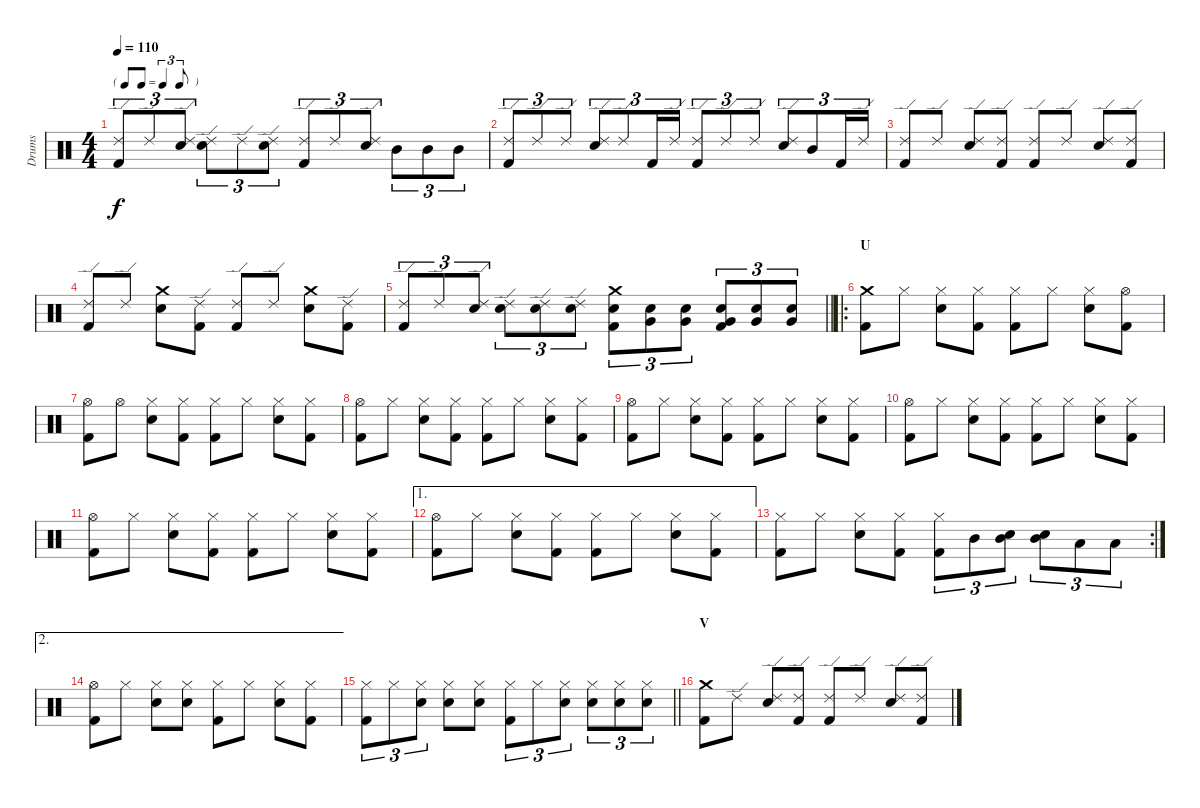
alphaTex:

\track ("Drums" "Drums") {instrument percussion}
\staff {score}
\articulation defaults
\ts (4 4)
\tf triplet8th
\tempo 110
\clef neutral
\ks c
("Ride (edge) 2" "Kick (hit) 2").8{tu (3 2) dy f} "Ride (edge) 2".8{tu (3 2)} ("Ride (edge) 2" "Snare (hit) 2").8{tu (3 2)} ("Ride (edge) 2" "Snare (hit) 2").8{tu (3 2)} "Ride (edge) 2".8{tu (3 2)} ("Ride (edge) 2" "Snare (hit) 2").8{tu (3 2)} ("Ride (edge) 2" "Kick (hit) 2").8{tu (3 2)} "Ride (edge) 2".8{tu (3 2)} ("Ride (edge) 2" "Snare (hit) 2").8{tu (3 2)} "Mid Tom (hit)".8{tu (3 2)} "Mid Tom (hit)".8{tu (3 2)} "Mid Tom (hit)".8{tu (3 2)} |
("Ride (edge) 2" "Kick (hit) 2").8{tu (3 2)} "Ride (edge) 2".8{tu (3 2)} "Ride (edge) 2".8{tu (3 2)} ("Ride (edge) 2" "Snare (hit) 2").8{tu (3 2)} "Ride (edge) 2".8{tu (3 2)} "Kick (hit) 2".16{tu (3 2)} "Ride (edge) 2".16{tu (3 2)} ("Ride (edge) 2" "Kick (hit) 2").8{tu (3 2)} "Ride (edge) 2".8{tu (3 2)} "Ride (edge) 2".8{tu (3 2)} ("Ride (edge) 2" "Snare (hit) 2").8{tu (3 2)} "Mid Tom (hit)".8{tu (3 2)} "Kick (hit) 2".16{tu (3 2)} "Ride (edge) 2".16{tu (3 2)} |
("Ride (edge) 2" "Kick (hit) 2").8 "Ride (edge) 2".8 ("Ride (edge) 2" "Snare (hit) 2").8 ("Ride (edge) 2" "Kick (hit) 2").8 ("Ride (edge) 2" "Kick (hit) 2").8 "Ride (edge) 2".8 ("Ride (edge) 2" "Snare (hit) 2").8 ("Ride (edge) 2" "Kick (hit) 2").8 |
("Ride (edge) 2" "Kick (hit) 2").8 "Ride (edge) 2".8 ("Crash medium (hit)" "Snare (hit) 2").8 ("Ride (edge) 2" "Kick (hit) 2").8 ("Ride (edge) 2" "Kick (hit) 2").8 "Ride (edge) 2".8 ("Crash medium (hit)" "Snare (hit) 2").8 ("Ride (edge) 2" "Kick (hit) 2").8 |
\barLineRight lightlight
("Ride (edge) 2" "Kick (hit) 2").8{tu (3 2)} "Ride (edge) 2".8{tu (3 2)} ("Ride (edge) 2" "Snare (hit) 2").8{tu (3 2)} ("Ride (edge) 2" "Snare (hit) 2").8{tu (3 2)} ("Ride (edge) 2" "Snare (hit) 2").8{tu (3 2)} ("Ride (edge) 2" "Snare (hit) 2").8{tu (3 2)} ("Crash medium (hit)" "Snare (hit) 2" "Kick (hit) 2").8{tu (3 2)} ("Very Low Tom (hit)" "Snare (hit) 2").8{tu (3 2)} ("Very Low Tom (hit)" "Snare (hit) 2").8{tu (3 2)} ("Kick (hit) 2" "Very Low Tom (hit)" "Snare (hit) 2").8{tu (3 2)} ("Very Low Tom (hit)" "Snare (hit) 2").8{tu (3 2)} ("Very Low Tom (hit)" "Snare (hit) 2").8{tu (3 2)} |
\ro
\section ("" "U")
("Crash medium (hit)" "Kick (hit) 2").8 "Hi-Hat (closed)".8 ("Hi-Hat (closed)" "Snare (hit) 2").8 ("Hi-Hat (closed)" "Kick (hit) 2").8 ("Hi-Hat (closed)" "Kick (hit) 2").8 "Hi-Hat (closed)".8 ("Hi-Hat (closed)" "Snare (hit) 2").8 ("Hi-Hat (open)" "Kick (hit) 2").8 |
("Hi-Hat (open)" "Kick (hit) 2").8 "Hi-Hat (open)".8 ("Hi-Hat (closed)" "Snare (hit) 2").8 ("Hi-Hat (closed)" "Kick (hit) 2").8 ("Hi-Hat (closed)" "Kick (hit) 2").8 "Hi-Hat (closed)".8 ("Hi-Hat (closed)" "Snare (hit) 2").8 ("Hi-Hat (closed)" "Kick (hit) 2").8 |
("Hi-Hat (open)" "Kick (hit) 2").8 "Hi-Hat (closed)".8 ("Hi-Hat (closed)" "Snare (hit) 2").8 ("Hi-Hat (closed)" "Kick (hit) 2").8 ("Hi-Hat (closed)" "Kick (hit) 2").8 "Hi-Hat (closed)".8 ("Hi-Hat (closed)" "Snare (hit) 2").8 ("Hi-Hat (closed)" "Kick (hit) 2").8 |
("Hi-Hat (open)" "Kick (hit) 2").8 "Hi-Hat (closed)".8 ("Hi-Hat (closed)" "Snare (hit) 2").8 ("Hi-Hat (closed)" "Kick (hit) 2").8 ("Hi-Hat (closed)" "Kick (hit) 2").8 "Hi-Hat (closed)".8 ("Hi-Hat (closed)" "Snare (hit) 2").8 ("Hi-Hat (closed)" "Kick (hit) 2").8 |
("Hi-Hat (open)" "Kick (hit) 2").8 "Hi-Hat (closed)".8 ("Hi-Hat (closed)" "Snare (hit) 2").8 ("Hi-Hat (closed)" "Kick (hit) 2").8 ("Hi-Hat (closed)" "Kick (hit) 2").8 "Hi-Hat (closed)".8 ("Hi-Hat (closed)" "Snare (hit) 2").8 ("Hi-Hat (closed)" "Kick (hit) 2").8 |
("Hi-Hat (open)" "Kick (hit) 2").8 "Hi-Hat (closed)".8 ("Hi-Hat (closed)" "Snare (hit) 2").8 ("Hi-Hat (closed)" "Kick (hit) 2").8 ("Hi-Hat (closed)" "Kick (hit) 2").8 "Hi-Hat (closed)".8 ("Hi-Hat (closed)" "Snare (hit) 2").8 ("Hi-Hat (closed)" "Kick (hit) 2").8 |
\ae 1
("Hi-Hat (open)" "Kick (hit) 2").8 "Hi-Hat (closed)".8 ("Hi-Hat (closed)" "Snare (hit) 2").8 ("Hi-Hat (closed)" "Kick (hit) 2").8 ("Hi-Hat (closed)" "Kick (hit) 2").8 "Hi-Hat (closed)".8 ("Hi-Hat (closed)" "Snare (hit) 2").8 ("Hi-Hat (closed)" "Kick (hit) 2").8 |
\rc 2
("Hi-Hat (closed)" "Kick (hit) 2").8 "Hi-Hat (closed)".8 ("Hi-Hat (closed)" "Snare (hit) 2").8 ("Hi-Hat (closed)" "Kick (hit) 2").8 ("Hi-Hat (closed)" "Kick (hit) 2").8{tu (3 2)} "Mid Tom (hit)".8{tu (3 2)} ("Snare (hit) 2" "Mid Tom (hit)").8{tu (3 2)} ("Snare (hit) 2" "Mid Tom (hit)").8{tu (3 2)} "Low Tom (hit)".8{tu (3 2)} "Low Tom (hit)".8{tu (3 2)} |
\ae 2
("Hi-Hat (open)" "Kick (hit) 2").8 "Hi-Hat (closed)".8 ("Hi-Hat (closed)" "Snare (hit) 2").8 ("Hi-Hat (closed)" "Snare (hit) 2").8 ("Hi-Hat (closed)" "Kick (hit) 2").8 "Hi-Hat (closed)".8 ("Hi-Hat (closed)" "Snare (hit) 2").8 ("Hi-Hat (closed)" "Kick (hit) 2").8 |
\barLineRight lightlight
("Hi-Hat (closed)" "Kick (hit) 2").8{tu (3 2)} "Hi-Hat (closed)".8{tu (3 2)} ("Hi-Hat (closed)" "Snare (hit) 2").8{tu (3 2)} ("Hi-Hat (closed)" "Snare (hit) 2").8 ("Hi-Hat (closed)" "Snare (hit) 2").8 ("Hi-Hat (closed)" "Kick (hit) 2").8{tu (3 2)} "Hi-Hat (closed)".8{tu (3 2)} ("Hi-Hat (closed)" "Snare (hit) 2").8{tu (3 2)} ("Hi-Hat (closed)" "Snare (hit) 2").8{tu (3 2)} ("Hi-Hat (closed)" "Snare (hit) 2").8{tu (3 2)} ("Hi-Hat (closed)" "Snare (hit) 2").8{tu (3 2)} |
\section ("" "V")
("Crash medium (hit)" "Kick (hit) 2").8 "Ride (edge) 2".8 ("Ride (edge) 2" "Snare (hit) 2").8 ("Ride (edge) 2" "Kick (hit) 2").8 ("Ride (edge) 2" "Kick (hit) 2").8 "Ride (edge) 2".8 ("Ride (edge) 2" "Snare (hit) 2").8 ("Ride (edge) 2" "Kick (hit) 2").8
